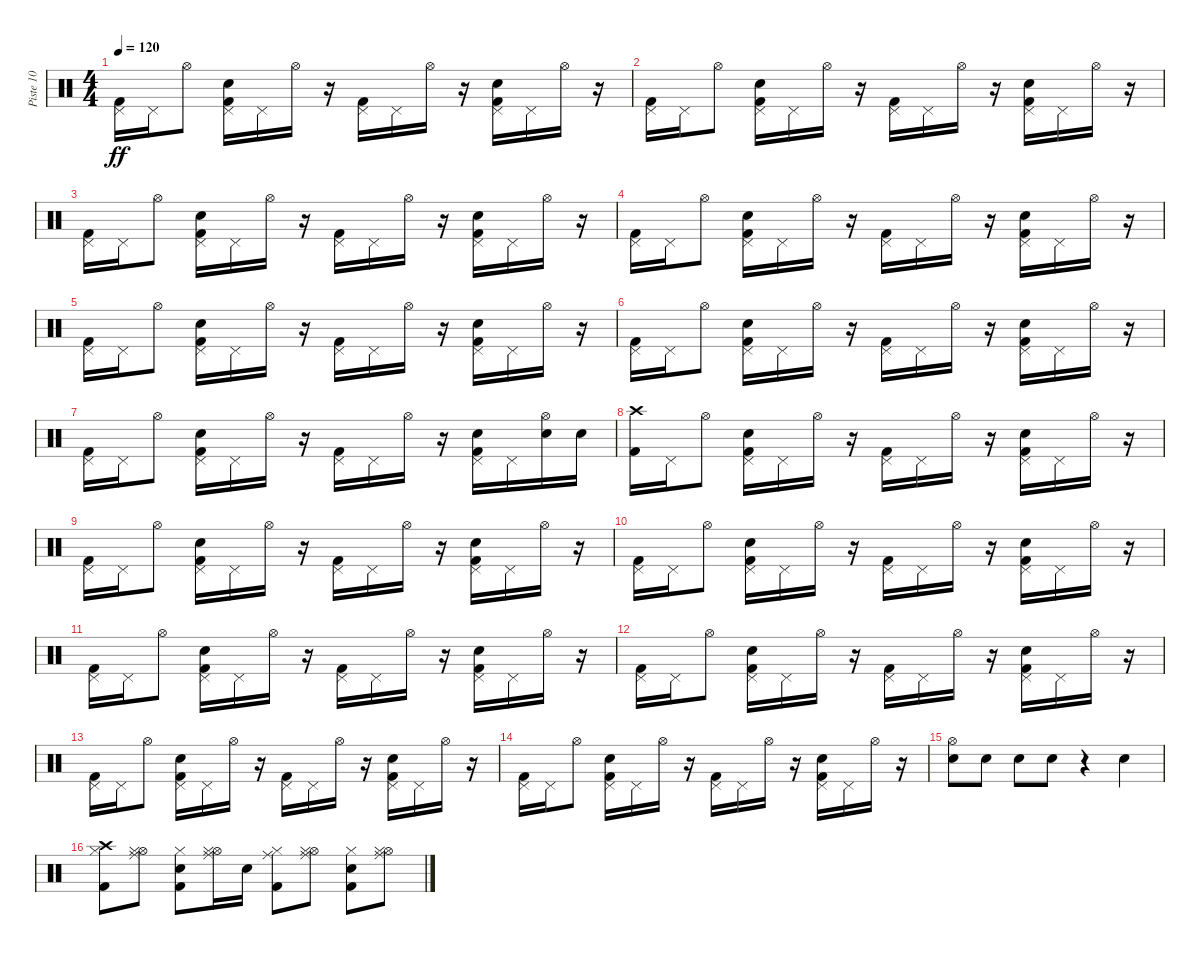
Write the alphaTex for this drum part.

\track ("Piste 10" "Piste 10") {instrument percussion}
\staff {score}
\articulation defaults
\ts (4 4)
\tempo 120
\clef neutral
\ks c
("Kick (hit) 2" "Pedal Hi-Hat (hit)").16{dy ff} "Pedal Hi-Hat (hit)".16 "Hi-Hat (open)".8 ("Kick (hit) 2" "Snare (hit) 2" "Pedal Hi-Hat (hit)").16 "Pedal Hi-Hat (hit)".16 "Hi-Hat (open)".16 r.16 ("Kick (hit) 2" "Pedal Hi-Hat (hit)").16 "Pedal Hi-Hat (hit)".16 "Hi-Hat (open)".16 r.16 ("Kick (hit) 2" "Snare (hit) 2" "Pedal Hi-Hat (hit)").16 "Pedal Hi-Hat (hit)".16 "Hi-Hat (open)".16 r.16 |
("Kick (hit) 2" "Pedal Hi-Hat (hit)").16 "Pedal Hi-Hat (hit)".16 "Hi-Hat (open)".8 ("Kick (hit) 2" "Snare (hit) 2" "Pedal Hi-Hat (hit)").16 "Pedal Hi-Hat (hit)".16 "Hi-Hat (open)".16 r.16 ("Kick (hit) 2" "Pedal Hi-Hat (hit)").16 "Pedal Hi-Hat (hit)".16 "Hi-Hat (open)".16 r.16 ("Kick (hit) 2" "Snare (hit) 2" "Pedal Hi-Hat (hit)").16 "Pedal Hi-Hat (hit)".16 "Hi-Hat (open)".16 r.16 |
("Kick (hit) 2" "Pedal Hi-Hat (hit)").16 "Pedal Hi-Hat (hit)".16 "Hi-Hat (open)".8 ("Kick (hit) 2" "Snare (hit) 2" "Pedal Hi-Hat (hit)").16 "Pedal Hi-Hat (hit)".16 "Hi-Hat (open)".16 r.16 ("Kick (hit) 2" "Pedal Hi-Hat (hit)").16 "Pedal Hi-Hat (hit)".16 "Hi-Hat (open)".16 r.16 ("Kick (hit) 2" "Snare (hit) 2" "Pedal Hi-Hat (hit)").16 "Pedal Hi-Hat (hit)".16 "Hi-Hat (open)".16 r.16 |
("Kick (hit) 2" "Pedal Hi-Hat (hit)").16 "Pedal Hi-Hat (hit)".16 "Hi-Hat (open)".8 ("Kick (hit) 2" "Snare (hit) 2" "Pedal Hi-Hat (hit)").16 "Pedal Hi-Hat (hit)".16 "Hi-Hat (open)".16 r.16 ("Kick (hit) 2" "Pedal Hi-Hat (hit)").16 "Pedal Hi-Hat (hit)".16 "Hi-Hat (open)".16 r.16 ("Kick (hit) 2" "Snare (hit) 2" "Pedal Hi-Hat (hit)").16 "Pedal Hi-Hat (hit)".16 "Hi-Hat (open)".16 r.16 |
("Kick (hit) 2" "Pedal Hi-Hat (hit)").16 "Pedal Hi-Hat (hit)".16 "Hi-Hat (open)".8 ("Kick (hit) 2" "Snare (hit) 2" "Pedal Hi-Hat (hit)").16 "Pedal Hi-Hat (hit)".16 "Hi-Hat (open)".16 r.16 ("Kick (hit) 2" "Pedal Hi-Hat (hit)").16 "Pedal Hi-Hat (hit)".16 "Hi-Hat (open)".16 r.16 ("Kick (hit) 2" "Snare (hit) 2" "Pedal Hi-Hat (hit)").16 "Pedal Hi-Hat (hit)".16 "Hi-Hat (open)".16 r.16 |
("Kick (hit) 2" "Pedal Hi-Hat (hit)").16 "Pedal Hi-Hat (hit)".16 "Hi-Hat (open)".8 ("Kick (hit) 2" "Snare (hit) 2" "Pedal Hi-Hat (hit)").16 "Pedal Hi-Hat (hit)".16 "Hi-Hat (open)".16 r.16 ("Kick (hit) 2" "Pedal Hi-Hat (hit)").16 "Pedal Hi-Hat (hit)".16 "Hi-Hat (open)".16 r.16 ("Kick (hit) 2" "Snare (hit) 2" "Pedal Hi-Hat (hit)").16 "Pedal Hi-Hat (hit)".16 "Hi-Hat (open)".16 r.16 |
("Kick (hit) 2" "Pedal Hi-Hat (hit)").16 "Pedal Hi-Hat (hit)".16 "Hi-Hat (open)".8 ("Kick (hit) 2" "Snare (hit) 2" "Pedal Hi-Hat (hit)").16 "Pedal Hi-Hat (hit)".16 "Hi-Hat (open)".16 r.16 ("Kick (hit) 2" "Pedal Hi-Hat (hit)").16 "Pedal Hi-Hat (hit)".16 "Hi-Hat (open)".16 r.16 ("Kick (hit) 2" "Snare (hit) 2" "Pedal Hi-Hat (hit)").16 "Pedal Hi-Hat (hit)".16 ("Snare (hit) 2" "Hi-Hat (open)").16 "Snare (hit) 2".16 |
("Crash high (hit)" "Kick (hit) 2").16 "Pedal Hi-Hat (hit)".16 "Hi-Hat (open)".8 ("Kick (hit) 2" "Snare (hit) 2" "Pedal Hi-Hat (hit)").16 "Pedal Hi-Hat (hit)".16 "Hi-Hat (open)".16 r.16 ("Kick (hit) 2" "Pedal Hi-Hat (hit)").16 "Pedal Hi-Hat (hit)".16 "Hi-Hat (open)".16 r.16 ("Kick (hit) 2" "Snare (hit) 2" "Pedal Hi-Hat (hit)").16 "Pedal Hi-Hat (hit)".16 "Hi-Hat (open)".16 r.16 |
("Kick (hit) 2" "Pedal Hi-Hat (hit)").16 "Pedal Hi-Hat (hit)".16 "Hi-Hat (open)".8 ("Kick (hit) 2" "Snare (hit) 2" "Pedal Hi-Hat (hit)").16 "Pedal Hi-Hat (hit)".16 "Hi-Hat (open)".16 r.16 ("Kick (hit) 2" "Pedal Hi-Hat (hit)").16 "Pedal Hi-Hat (hit)".16 "Hi-Hat (open)".16 r.16 ("Kick (hit) 2" "Snare (hit) 2" "Pedal Hi-Hat (hit)").16 "Pedal Hi-Hat (hit)".16 "Hi-Hat (open)".16 r.16 |
("Kick (hit) 2" "Pedal Hi-Hat (hit)").16 "Pedal Hi-Hat (hit)".16 "Hi-Hat (open)".8 ("Kick (hit) 2" "Snare (hit) 2" "Pedal Hi-Hat (hit)").16 "Pedal Hi-Hat (hit)".16 "Hi-Hat (open)".16 r.16 ("Kick (hit) 2" "Pedal Hi-Hat (hit)").16 "Pedal Hi-Hat (hit)".16 "Hi-Hat (open)".16 r.16 ("Kick (hit) 2" "Snare (hit) 2" "Pedal Hi-Hat (hit)").16 "Pedal Hi-Hat (hit)".16 "Hi-Hat (open)".16 r.16 |
("Kick (hit) 2" "Pedal Hi-Hat (hit)").16 "Pedal Hi-Hat (hit)".16 "Hi-Hat (open)".8 ("Kick (hit) 2" "Snare (hit) 2" "Pedal Hi-Hat (hit)").16 "Pedal Hi-Hat (hit)".16 "Hi-Hat (open)".16 r.16 ("Kick (hit) 2" "Pedal Hi-Hat (hit)").16 "Pedal Hi-Hat (hit)".16 "Hi-Hat (open)".16 r.16 ("Kick (hit) 2" "Snare (hit) 2" "Pedal Hi-Hat (hit)").16 "Pedal Hi-Hat (hit)".16 "Hi-Hat (open)".16 r.16 |
("Kick (hit) 2" "Pedal Hi-Hat (hit)").16 "Pedal Hi-Hat (hit)".16 "Hi-Hat (open)".8 ("Kick (hit) 2" "Snare (hit) 2" "Pedal Hi-Hat (hit)").16 "Pedal Hi-Hat (hit)".16 "Hi-Hat (open)".16 r.16 ("Kick (hit) 2" "Pedal Hi-Hat (hit)").16 "Pedal Hi-Hat (hit)".16 "Hi-Hat (open)".16 r.16 ("Kick (hit) 2" "Snare (hit) 2" "Pedal Hi-Hat (hit)").16 "Pedal Hi-Hat (hit)".16 "Hi-Hat (open)".16 r.16 |
("Kick (hit) 2" "Pedal Hi-Hat (hit)").16 "Pedal Hi-Hat (hit)".16 "Hi-Hat (open)".8 ("Kick (hit) 2" "Snare (hit) 2" "Pedal Hi-Hat (hit)").16 "Pedal Hi-Hat (hit)".16 "Hi-Hat (open)".16 r.16 ("Kick (hit) 2" "Pedal Hi-Hat (hit)").16 "Pedal Hi-Hat (hit)".16 "Hi-Hat (open)".16 r.16 ("Kick (hit) 2" "Snare (hit) 2" "Pedal Hi-Hat (hit)").16 "Pedal Hi-Hat (hit)".16 "Hi-Hat (open)".16 r.16 |
("Kick (hit) 2" "Pedal Hi-Hat (hit)").16 "Pedal Hi-Hat (hit)".16 "Hi-Hat (open)".8 ("Kick (hit) 2" "Snare (hit) 2" "Pedal Hi-Hat (hit)").16 "Pedal Hi-Hat (hit)".16 "Hi-Hat (open)".16 r.16 ("Kick (hit) 2" "Pedal Hi-Hat (hit)").16 "Pedal Hi-Hat (hit)".16 "Hi-Hat (open)".16 r.16 ("Kick (hit) 2" "Snare (hit) 2" "Pedal Hi-Hat (hit)").16 "Pedal Hi-Hat (hit)".16 "Hi-Hat (open)".16 r.16 |
("Snare (hit) 2" "Hi-Hat (open)").8 "Snare (hit) 2".8 "Snare (hit) 2".8 "Snare (hit) 2".8 r.4 "Snare (hit) 2".4 |
("Kick (hit) 2" "Crash high (hit)" "Hi-Hat (closed)").8 ("Ride (middle)" "Hi-Hat (open)" "Hi-Hat (closed)").8 ("Kick (hit) 2" "Snare (hit) 2" "Hi-Hat (closed)").8 ("Ride (middle)" "Hi-Hat (open)" "Hi-Hat (closed)").16 "Snare (hit) 2".16 ("Kick (hit) 2" "Ride (middle)" "Hi-Hat (closed)").8 ("Ride (middle)" "Hi-Hat (open)" "Hi-Hat (closed)").8 ("Kick (hit) 2" "Snare (hit) 2" "Hi-Hat (closed)").8 ("Ride (middle)" "Hi-Hat (open)" "Hi-Hat (closed)").8
